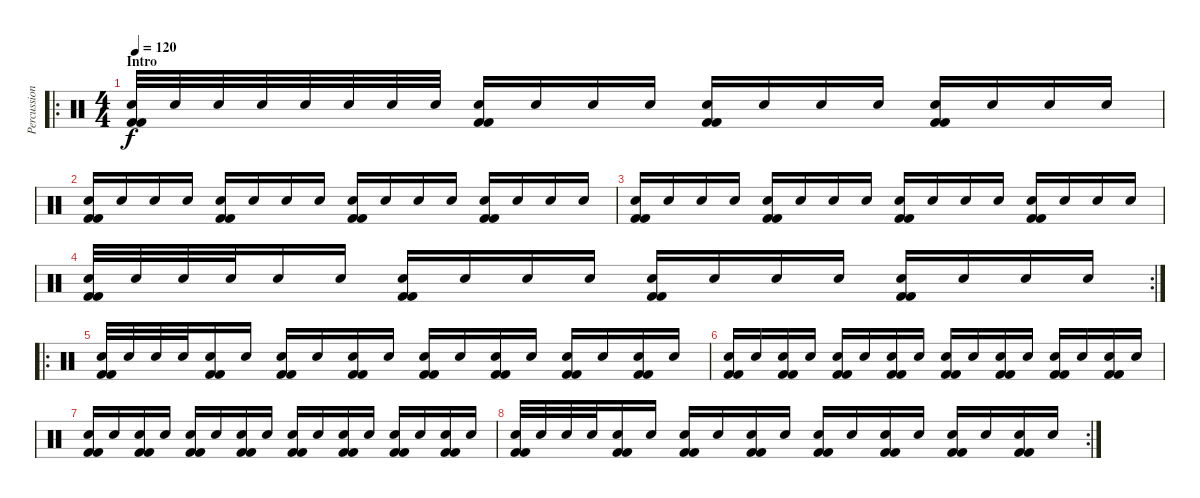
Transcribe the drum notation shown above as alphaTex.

\track ("Percussion" "Percussion") {instrument percussion}
\staff {score}
\articulation defaults
\ro
\ts (4 4)
\section ("" "Intro")
\tempo 120
\clef neutral
\ks c
("Kick (hit) 2" "Kick (hit) 2" "Snare (hit) 2").32{dy f} "Snare (hit) 2".32 "Snare (hit) 2".32 "Snare (hit) 2".32 "Snare (hit) 2".32 "Snare (hit) 2".32 "Snare (hit) 2".32 "Snare (hit) 2".32 ("Kick (hit) 2" "Kick (hit) 2" "Snare (hit) 2").16 "Snare (hit) 2".16 "Snare (hit) 2".16 "Snare (hit) 2".16 ("Kick (hit) 2" "Kick (hit) 2" "Snare (hit) 2").16 "Snare (hit) 2".16 "Snare (hit) 2".16 "Snare (hit) 2".16 ("Kick (hit) 2" "Kick (hit) 2" "Snare (hit) 2").16 "Snare (hit) 2".16 "Snare (hit) 2".16 "Snare (hit) 2".16 |
("Kick (hit) 2" "Kick (hit) 2" "Snare (hit) 2").16 "Snare (hit) 2".16 "Snare (hit) 2".16 "Snare (hit) 2".16 ("Kick (hit) 2" "Kick (hit) 2" "Snare (hit) 2").16 "Snare (hit) 2".16 "Snare (hit) 2".16 "Snare (hit) 2".16 ("Kick (hit) 2" "Kick (hit) 2" "Snare (hit) 2").16 "Snare (hit) 2".16 "Snare (hit) 2".16 "Snare (hit) 2".16 ("Kick (hit) 2" "Kick (hit) 2" "Snare (hit) 2").16 "Snare (hit) 2".16 "Snare (hit) 2".16 "Snare (hit) 2".16 |
("Kick (hit) 2" "Kick (hit) 2" "Snare (hit) 2").16 "Snare (hit) 2".16 "Snare (hit) 2".16 "Snare (hit) 2".16 ("Kick (hit) 2" "Kick (hit) 2" "Snare (hit) 2").16 "Snare (hit) 2".16 "Snare (hit) 2".16 "Snare (hit) 2".16 ("Kick (hit) 2" "Kick (hit) 2" "Snare (hit) 2").16 "Snare (hit) 2".16 "Snare (hit) 2".16 "Snare (hit) 2".16 ("Kick (hit) 2" "Kick (hit) 2" "Snare (hit) 2").16 "Snare (hit) 2".16 "Snare (hit) 2".16 "Snare (hit) 2".16 |
\rc 2
("Kick (hit) 2" "Kick (hit) 2" "Snare (hit) 2").32 "Snare (hit) 2".32 "Snare (hit) 2".32 "Snare (hit) 2".32 "Snare (hit) 2".16 "Snare (hit) 2".16 ("Kick (hit) 2" "Kick (hit) 2" "Snare (hit) 2").16 "Snare (hit) 2".16 "Snare (hit) 2".16 "Snare (hit) 2".16 ("Kick (hit) 2" "Kick (hit) 2" "Snare (hit) 2").16 "Snare (hit) 2".16 "Snare (hit) 2".16 "Snare (hit) 2".16 ("Kick (hit) 2" "Kick (hit) 2" "Snare (hit) 2").16 "Snare (hit) 2".16 "Snare (hit) 2".16 "Snare (hit) 2".16 |
\ro
("Kick (hit) 2" "Kick (hit) 2" "Snare (hit) 2").32 "Snare (hit) 2".32 "Snare (hit) 2".32 "Snare (hit) 2".32 ("Kick (hit) 2" "Kick (hit) 2" "Snare (hit) 2").16 "Snare (hit) 2".16 ("Kick (hit) 2" "Kick (hit) 2" "Snare (hit) 2").16 "Snare (hit) 2".16 ("Kick (hit) 2" "Kick (hit) 2" "Snare (hit) 2").16 "Snare (hit) 2".16 ("Kick (hit) 2" "Kick (hit) 2" "Snare (hit) 2").16 "Snare (hit) 2".16 ("Kick (hit) 2" "Kick (hit) 2" "Snare (hit) 2").16 "Snare (hit) 2".16 ("Kick (hit) 2" "Kick (hit) 2" "Snare (hit) 2").16 "Snare (hit) 2".16 ("Kick (hit) 2" "Kick (hit) 2" "Snare (hit) 2").16 "Snare (hit) 2".16 |
("Kick (hit) 2" "Kick (hit) 2" "Snare (hit) 2").16 "Snare (hit) 2".16 ("Kick (hit) 2" "Kick (hit) 2" "Snare (hit) 2").16 "Snare (hit) 2".16 ("Kick (hit) 2" "Kick (hit) 2" "Snare (hit) 2").16 "Snare (hit) 2".16 ("Kick (hit) 2" "Kick (hit) 2" "Snare (hit) 2").16 "Snare (hit) 2".16 ("Kick (hit) 2" "Kick (hit) 2" "Snare (hit) 2").16 "Snare (hit) 2".16 ("Kick (hit) 2" "Kick (hit) 2" "Snare (hit) 2").16 "Snare (hit) 2".16 ("Kick (hit) 2" "Kick (hit) 2" "Snare (hit) 2").16 "Snare (hit) 2".16 ("Kick (hit) 2" "Kick (hit) 2" "Snare (hit) 2").16 "Snare (hit) 2".16 |
("Kick (hit) 2" "Kick (hit) 2" "Snare (hit) 2").16 "Snare (hit) 2".16 ("Kick (hit) 2" "Kick (hit) 2" "Snare (hit) 2").16 "Snare (hit) 2".16 ("Kick (hit) 2" "Kick (hit) 2" "Snare (hit) 2").16 "Snare (hit) 2".16 ("Kick (hit) 2" "Kick (hit) 2" "Snare (hit) 2").16 "Snare (hit) 2".16 ("Kick (hit) 2" "Kick (hit) 2" "Snare (hit) 2").16 "Snare (hit) 2".16 ("Kick (hit) 2" "Kick (hit) 2" "Snare (hit) 2").16 "Snare (hit) 2".16 ("Kick (hit) 2" "Kick (hit) 2" "Snare (hit) 2").16 "Snare (hit) 2".16 ("Kick (hit) 2" "Kick (hit) 2" "Snare (hit) 2").16 "Snare (hit) 2".16 |
\rc 2
("Kick (hit) 2" "Kick (hit) 2" "Snare (hit) 2").32 "Snare (hit) 2".32 "Snare (hit) 2".32 "Snare (hit) 2".32 ("Kick (hit) 2" "Kick (hit) 2" "Snare (hit) 2").16 "Snare (hit) 2".16 ("Kick (hit) 2" "Kick (hit) 2" "Snare (hit) 2").16 "Snare (hit) 2".16 ("Kick (hit) 2" "Kick (hit) 2" "Snare (hit) 2").16 "Snare (hit) 2".16 ("Kick (hit) 2" "Kick (hit) 2" "Snare (hit) 2").16 "Snare (hit) 2".16 ("Kick (hit) 2" "Kick (hit) 2" "Snare (hit) 2").16 "Snare (hit) 2".16 ("Kick (hit) 2" "Kick (hit) 2" "Snare (hit) 2").16 "Snare (hit) 2".16 ("Kick (hit) 2" "Kick (hit) 2" "Snare (hit) 2").16 "Snare (hit) 2".16
